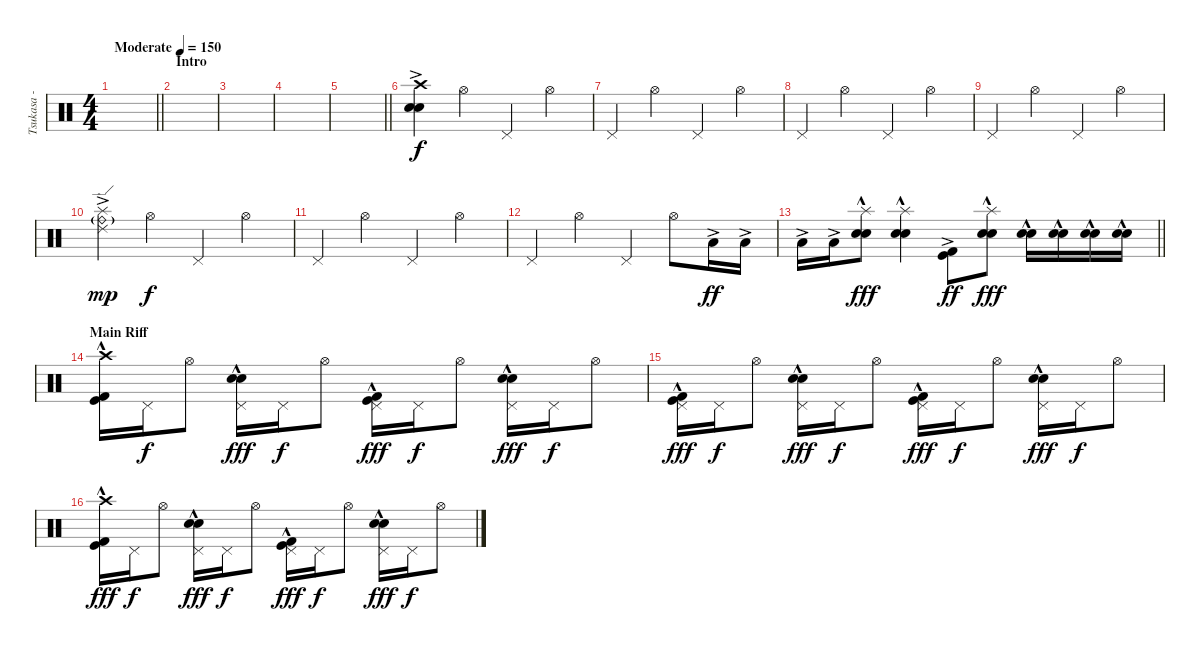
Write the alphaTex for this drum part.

\track ("Tsukasa - Drums" "Tsukasa - ") {instrument percussion}
\staff {score}
\articulation defaults
\ts (4 4)
\tempo (150 "Moderate")
\clef neutral
\barLineRight lightlight
\ks c
|
\section ("" "Intro")
|
|
|
\barLineRight lightlight
|
\section ("" "")
("Crash high (hit)"{ac} "Electric Snare (hit)" "Snare (hit) 2").4 "Hi-Hat (open)".4{dy f} "Pedal Hi-Hat (hit)".4 "Hi-Hat (open)".4 |
"Pedal Hi-Hat (hit)".4 "Hi-Hat (open)".4 "Pedal Hi-Hat (hit)".4 "Hi-Hat (open)".4 |
"Pedal Hi-Hat (hit)".4 "Hi-Hat (open)".4 "Pedal Hi-Hat (hit)".4 "Hi-Hat (open)".4 |
"Pedal Hi-Hat (hit)".4 "Hi-Hat (open)".4 "Pedal Hi-Hat (hit)".4 "Hi-Hat (open)".4 |
("Ride (edge) 2"{ac} "Splash (hit)"{ac} "Ride (bell)"{g}).4{dy mp} "Hi-Hat (open)".4{dy f} "Pedal Hi-Hat (hit)".4 "Hi-Hat (open)".4 |
"Pedal Hi-Hat (hit)".4 "Hi-Hat (open)".4 "Pedal Hi-Hat (hit)".4 "Hi-Hat (open)".4 |
"Pedal Hi-Hat (hit)".4 "Hi-Hat (open)".4 "Pedal Hi-Hat (hit)".4 "Hi-Hat (open)".8 "Low Tom (hit)"{ac}.16{dy ff} "Low Tom (hit)"{ac}.16 |
\barLineRight lightlight "Low Tom (hit)"{ac}.16 "Low Tom (hit)"{ac}.16
("Splash (hit)"{hac} "Electric Snare (hit)"{hac} "Snare (hit) 2").8{dy fff} ("Splash (hit)"{hac} "Electric Snare (hit)"{hac} "Snare (hit) 2").4 ("Kick (hit)"{ac} "Kick (hit) 2"{ac}).8{dy ff} ("Splash (hit)"{hac} "Electric Snare (hit)"{hac} "Snare (hit) 2").8{dy fff} ("Electric Snare (hit)"{hac} "Snare (hit) 2").16 ("Electric Snare (hit)"{hac} "Snare (hit) 2").16 ("Electric Snare (hit)"{hac} "Snare (hit) 2").16 ("Electric Snare (hit)"{hac} "Snare (hit) 2").16 |
\section ("" "Main Riff")
("Crash high (hit)" "Kick (hit)"{hac} "Kick (hit) 2"{hac}).16 "Pedal Hi-Hat (hit)".16{dy f} "Hi-Hat (open)".8 ("Pedal Hi-Hat (hit)" "Electric Snare (hit)"{hac} "Snare (hit) 2").16{dy fff} "Pedal Hi-Hat (hit)".16{dy f} "Hi-Hat (open)".8 ("Pedal Hi-Hat (hit)" "Kick (hit)"{hac} "Kick (hit) 2"{hac}).16{dy fff} "Pedal Hi-Hat (hit)".16{dy f} "Hi-Hat (open)".8 ("Pedal Hi-Hat (hit)" "Electric Snare (hit)"{hac} "Snare (hit) 2").16{dy fff} "Pedal Hi-Hat (hit)".16{dy f} "Hi-Hat (open)".8 |
("Pedal Hi-Hat (hit)" "Kick (hit)"{hac} "Kick (hit) 2"{hac}).16{dy fff} "Pedal Hi-Hat (hit)".16{dy f} "Hi-Hat (open)".8 ("Pedal Hi-Hat (hit)" "Electric Snare (hit)"{hac} "Snare (hit) 2").16{dy fff} "Pedal Hi-Hat (hit)".16{dy f} "Hi-Hat (open)".8 ("Pedal Hi-Hat (hit)" "Kick (hit)"{hac} "Kick (hit) 2"{hac}).16{dy fff} "Pedal Hi-Hat (hit)".16{dy f} "Hi-Hat (open)".8 ("Pedal Hi-Hat (hit)" "Electric Snare (hit)"{hac} "Snare (hit) 2").16{dy fff} "Pedal Hi-Hat (hit)".16{dy f} "Hi-Hat (open)".8 |
("Crash high (hit)" "Kick (hit)"{hac} "Kick (hit) 2"{hac}).16{dy fff} "Pedal Hi-Hat (hit)".16{dy f} "Hi-Hat (open)".8 ("Pedal Hi-Hat (hit)" "Electric Snare (hit)"{hac} "Snare (hit) 2").16{dy fff} "Pedal Hi-Hat (hit)".16{dy f} "Hi-Hat (open)".8 ("Pedal Hi-Hat (hit)" "Kick (hit)"{hac} "Kick (hit) 2"{hac}).16{dy fff} "Pedal Hi-Hat (hit)".16{dy f} "Hi-Hat (open)".8 ("Pedal Hi-Hat (hit)" "Electric Snare (hit)"{hac} "Snare (hit) 2").16{dy fff} "Pedal Hi-Hat (hit)".16{dy f} "Hi-Hat (open)".8
